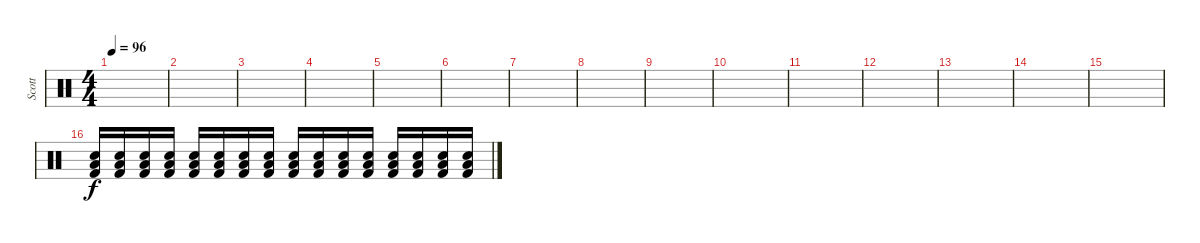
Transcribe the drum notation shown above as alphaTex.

\track ("Scott" "Scott") {instrument percussion}
\staff {score}
\articulation defaults
\ts (4 4)
\tempo 96
\clef neutral
\ks c
|
|
|
|
|
|
|
|
|
|
|
|
|
|
|
("Snare (hit) 2" "Low Tom (hit)" "Kick (hit) 2").16{volume 16} ("Snare (hit) 2" "Low Tom (hit)" "Kick (hit) 2").16 ("Snare (hit) 2" "Low Tom (hit)" "Kick (hit) 2").16 ("Snare (hit) 2" "Low Tom (hit)" "Kick (hit) 2").16 ("Snare (hit) 2" "Low Tom (hit)" "Kick (hit) 2").16 ("Snare (hit) 2" "Low Tom (hit)" "Kick (hit) 2").16 ("Snare (hit) 2" "Low Tom (hit)" "Kick (hit) 2").16 ("Snare (hit) 2" "Low Tom (hit)" "Kick (hit) 2").16 ("Snare (hit) 2" "Low Tom (hit)" "Kick (hit) 2").16 ("Snare (hit) 2" "Low Tom (hit)" "Kick (hit) 2").16 ("Snare (hit) 2" "Low Tom (hit)" "Kick (hit) 2").16 ("Snare (hit) 2" "Low Tom (hit)" "Kick (hit) 2").16 ("Snare (hit) 2" "Low Tom (hit)" "Kick (hit) 2").16 ("Snare (hit) 2" "Low Tom (hit)" "Kick (hit) 2").16 ("Snare (hit) 2" "Low Tom (hit)" "Kick (hit) 2").16 ("Snare (hit) 2" "Low Tom (hit)" "Kick (hit) 2").16
